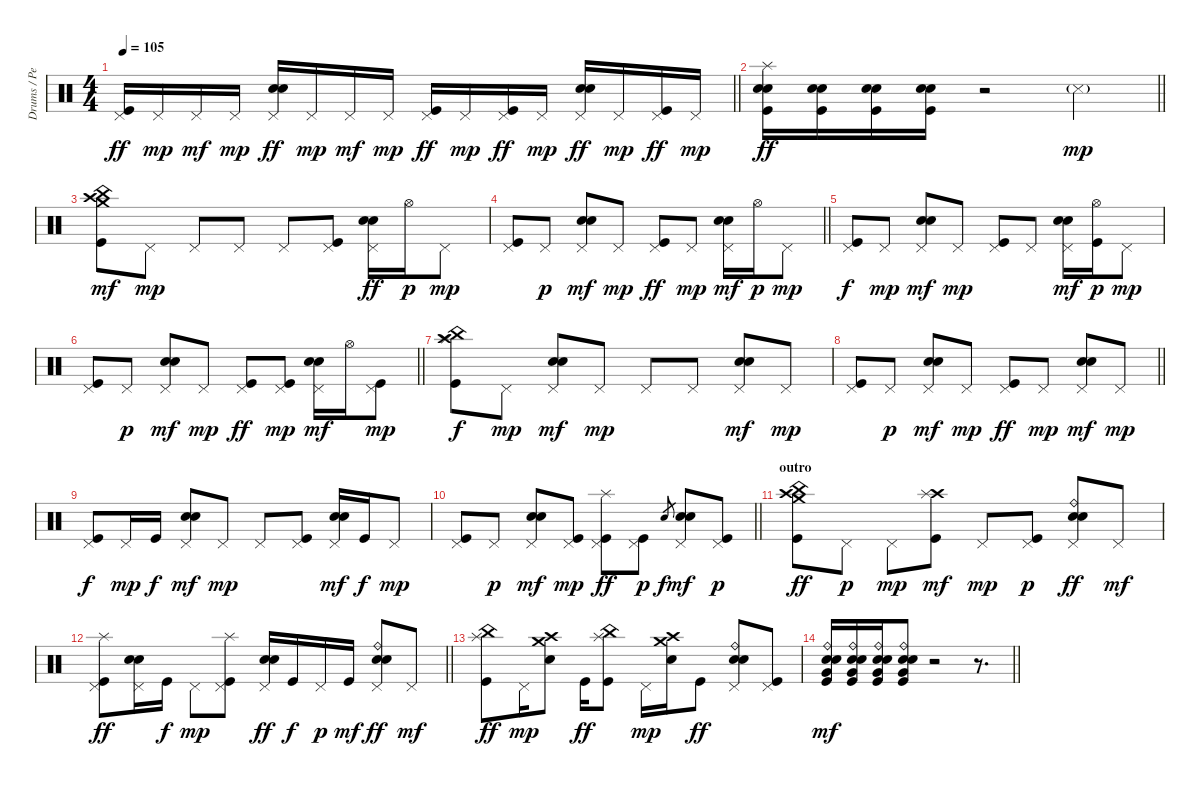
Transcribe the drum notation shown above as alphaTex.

\track ("Drums / Percussion" "Drums / Pe") {instrument percussion}
\staff {score}
\articulation defaults
\ts (4 4)
\tempo 105
\clef neutral
\barLineRight lightlight
\ks c
("Pedal Hi-Hat (hit)" "Kick (hit)").16{dy ff} "Pedal Hi-Hat (hit)".16{dy mp} "Pedal Hi-Hat (hit)".16{dy mf} "Pedal Hi-Hat (hit)".16{dy mp} ("Pedal Hi-Hat (hit)" "Electric Snare (hit)" "Snare (hit) 2").16{dy ff} "Pedal Hi-Hat (hit)".16{dy mp} "Pedal Hi-Hat (hit)".16{dy mf} "Pedal Hi-Hat (hit)".16{dy mp} ("Pedal Hi-Hat (hit)" "Kick (hit)").16{dy ff} "Pedal Hi-Hat (hit)".16{dy mp} ("Pedal Hi-Hat (hit)" "Kick (hit)").16{dy ff} "Pedal Hi-Hat (hit)".16{dy mp} ("Pedal Hi-Hat (hit)" "Electric Snare (hit)" "Snare (hit) 2").16{dy ff} "Pedal Hi-Hat (hit)".16{dy mp} ("Pedal Hi-Hat (hit)" "Kick (hit)").16{dy ff} "Pedal Hi-Hat (hit)".16{dy mp} |
\section ("" "")
\barLineRight lightlight
("Splash (hit)" "Electric Snare (hit)" "Snare (hit) 2" "Kick (hit)").16{dy ff volume 13} ("Electric Snare (hit)" "Snare (hit) 2" "Kick (hit)").16 ("Electric Snare (hit)" "Snare (hit) 2" "Kick (hit)").16 ("Electric Snare (hit)" "Snare (hit) 2" "Kick (hit)").16 r.2 "Snare (side stick) 3"{g}.4{dy mp} |
("Crash medium (hit)" "Crash high (hit)" "China (hit)" "Kick (hit)").8{dy mf} "Pedal Hi-Hat (hit)".8{dy mp} "Pedal Hi-Hat (hit)".8 "Pedal Hi-Hat (hit)".8 "Pedal Hi-Hat (hit)".8 ("Pedal Hi-Hat (hit)" "Kick (hit)").8 ("Pedal Hi-Hat (hit)" "Electric Snare (hit)" "Snare (hit) 2").16{dy ff} "Hi-Hat (open)".16{dy p} "Pedal Hi-Hat (hit)".8{dy mp} |
\barLineRight lightlight
("Pedal Hi-Hat (hit)" "Kick (hit)").8 "Pedal Hi-Hat (hit)".8{dy p} ("Pedal Hi-Hat (hit)" "Electric Snare (hit)" "Snare (hit) 2").8{dy mf} "Pedal Hi-Hat (hit)".8{dy mp} ("Pedal Hi-Hat (hit)" "Kick (hit)").8{dy ff} "Pedal Hi-Hat (hit)".8{dy mp} ("Pedal Hi-Hat (hit)" "Electric Snare (hit)" "Snare (hit) 2").16{dy mf} "Hi-Hat (open)".16{dy p} "Pedal Hi-Hat (hit)".8{dy mp} |
("Pedal Hi-Hat (hit)" "Kick (hit)").8{dy f} "Pedal Hi-Hat (hit)".8{dy mp} ("Pedal Hi-Hat (hit)" "Electric Snare (hit)" "Snare (hit) 2").8{dy mf} "Pedal Hi-Hat (hit)".8{dy mp} ("Pedal Hi-Hat (hit)" "Kick (hit)").8 "Pedal Hi-Hat (hit)".8 ("Pedal Hi-Hat (hit)" "Electric Snare (hit)" "Snare (hit) 2").16{dy mf} ("Hi-Hat (open)" "Kick (hit)").16{dy p} "Pedal Hi-Hat (hit)".8{dy mp} |
\barLineRight lightlight
("Pedal Hi-Hat (hit)" "Kick (hit)").8 "Pedal Hi-Hat (hit)".8{dy p} ("Pedal Hi-Hat (hit)" "Electric Snare (hit)" "Snare (hit) 2").8{dy mf} "Pedal Hi-Hat (hit)".8{dy mp} ("Pedal Hi-Hat (hit)" "Kick (hit)").8{dy ff} ("Pedal Hi-Hat (hit)" "Kick (hit)").8{dy mp} ("Pedal Hi-Hat (hit)" "Electric Snare (hit)" "Snare (hit) 2").16{dy mf} "Hi-Hat (open)".16 ("Pedal Hi-Hat (hit)" "Kick (hit)").8{dy mp} |
\section ("" "")
("Crash high (hit)" "China (hit)" "Splash (hit)" "Kick (hit)").8{dy f} "Pedal Hi-Hat (hit)".8{dy mp} ("Pedal Hi-Hat (hit)" "Electric Snare (hit)" "Snare (hit) 2").8{dy mf} "Pedal Hi-Hat (hit)".8{dy mp} "Pedal Hi-Hat (hit)".8 "Pedal Hi-Hat (hit)".8 ("Pedal Hi-Hat (hit)" "Electric Snare (hit)" "Snare (hit) 2").8{dy mf} "Pedal Hi-Hat (hit)".8{dy mp} |
\barLineRight lightlight
("Pedal Hi-Hat (hit)" "Kick (hit)").8 "Pedal Hi-Hat (hit)".8{dy p} ("Pedal Hi-Hat (hit)" "Electric Snare (hit)" "Snare (hit) 2").8{dy mf} "Pedal Hi-Hat (hit)".8{dy mp} ("Pedal Hi-Hat (hit)" "Kick (hit)").8{dy ff} "Pedal Hi-Hat (hit)".8{dy mp} ("Pedal Hi-Hat (hit)" "Electric Snare (hit)" "Snare (hit) 2").8{dy mf} "Pedal Hi-Hat (hit)".8{dy mp} |
("Pedal Hi-Hat (hit)" "Kick (hit)").8{dy f} "Pedal Hi-Hat (hit)".16{dy mp} "Kick (hit)".16{dy f} ("Pedal Hi-Hat (hit)" "Electric Snare (hit)" "Snare (hit) 2").8{dy mf} "Pedal Hi-Hat (hit)".8{dy mp} "Pedal Hi-Hat (hit)".8 ("Pedal Hi-Hat (hit)" "Kick (hit)").8 ("Pedal Hi-Hat (hit)" "Electric Snare (hit)" "Snare (hit) 2").16{dy mf} "Kick (hit)".16{dy f} "Pedal Hi-Hat (hit)".8{dy mp} |
\barLineRight lightlight
("Pedal Hi-Hat (hit)" "Kick (hit)").8 "Pedal Hi-Hat (hit)".8{dy p} ("Pedal Hi-Hat (hit)" "Electric Snare (hit)" "Snare (hit) 2").8{dy mf} ("Pedal Hi-Hat (hit)" "Kick (hit)").8{dy mp} ("Pedal Hi-Hat (hit)" "Splash (hit)" "Kick (hit)").8{dy ff} ("Pedal Hi-Hat (hit)" "Kick (hit)").8{dy p} "Electric Snare (hit)".8{gr dy f} ("Pedal Hi-Hat (hit)" "Electric Snare (hit)" "Snare (hit) 2").8{dy mf} ("Pedal Hi-Hat (hit)" "Kick (hit)").8{dy p} |
\section ("" "outro")
("China (hit)" "Crash medium (hit)" "Crash high (hit)" "Kick (hit)").8{dy ff} "Pedal Hi-Hat (hit)".8{dy p} "Pedal Hi-Hat (hit)".8{dy mp} ("Crash high (hit)" "Splash (hit)" "Kick (hit)").8{dy mf} "Pedal Hi-Hat (hit)".8{dy mp} ("Pedal Hi-Hat (hit)" "Kick (hit)").8{dy p} ("Pedal Hi-Hat (hit)" "Ride (bell)" "Electric Snare (hit)" "Snare (hit) 2").8{dy ff} "Pedal Hi-Hat (hit)".8{dy mf} |
\barLineRight lightlight
("Pedal Hi-Hat (hit)" "Splash (hit)" "Kick (hit)").8{dy ff} ("Pedal Hi-Hat (hit)" "Electric Snare (hit)" "Snare (hit) 2").16 "Kick (hit)".16{dy f} "Pedal Hi-Hat (hit)".8{dy mp} ("Pedal Hi-Hat (hit)" "Splash (hit)" "Kick (hit)").8 ("Pedal Hi-Hat (hit)" "Electric Snare (hit)" "Snare (hit) 2").16{dy ff} "Kick (hit)".16{dy f} "Pedal Hi-Hat (hit)".16{dy p} "Kick (hit)".16{dy mf} ("Pedal Hi-Hat (hit)" "Ride (bell)" "Electric Snare (hit)" "Snare (hit) 2").8{dy ff} "Pedal Hi-Hat (hit)".8{dy mf} |
("China (hit)" "Splash (hit)" "Kick (hit)").8{dy ff} "Pedal Hi-Hat (hit)".16{dy mp} ("Crash medium (hit)" "Crash high (hit)" "Snare (hit) 2").8 "Kick (hit)".16{dy ff} ("China (hit)" "Splash (hit)" "Kick (hit)").8 "Pedal Hi-Hat (hit)".16{dy mp} ("Crash medium (hit)" "Crash high (hit)" "Snare (hit) 2").16 "Kick (hit)".8{dy ff} ("Pedal Hi-Hat (hit)" "Ride (bell)" "Electric Snare (hit)" "Snare (hit) 2").8 ("Pedal Hi-Hat (hit)" "Kick (hit)").8 |
\barLineRight lightlight
("Ride (bell)" "Electric Snare (hit)" "Snare (hit) 2" "Very Low Tom (hit)" "Kick (hit)").16{dy mf} ("Ride (bell)" "Electric Snare (hit)" "Snare (hit) 2" "Very Low Tom (hit)" "Kick (hit)").16 ("Ride (bell)" "Electric Snare (hit)" "Snare (hit) 2" "Very Low Tom (hit)" "Kick (hit)").16 ("Ride (bell)" "Electric Snare (hit)" "Snare (hit) 2" "Very Low Tom (hit)" "Kick (hit)").8 r.2 r.8{d}
